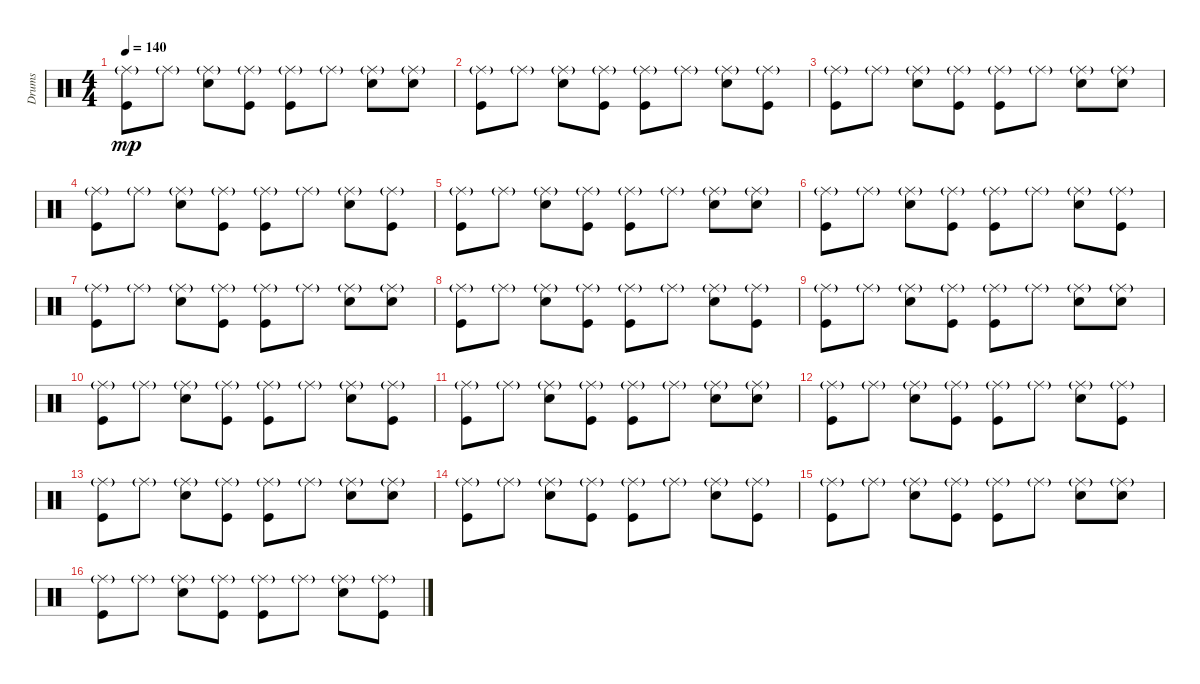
\track ("Drums" "Drums") {instrument percussion}
\staff {score}
\articulation defaults
\ts (4 4)
\tempo 140
\clef neutral
\ks c
("Ride (middle)"{g} "Kick (hit)").8{dy mp} "Ride (middle)"{g}.8 ("Ride (middle)"{g} "Electric Snare (hit)").8 ("Ride (middle)"{g} "Kick (hit)").8 ("Ride (middle)"{g} "Kick (hit)").8 "Ride (middle)"{g}.8 ("Ride (middle)"{g} "Electric Snare (hit)").8 ("Ride (middle)"{g} "Electric Snare (hit)").8 |
("Ride (middle)"{g} "Kick (hit)").8 "Ride (middle)"{g}.8 ("Ride (middle)"{g} "Electric Snare (hit)").8 ("Ride (middle)"{g} "Kick (hit)").8 ("Ride (middle)"{g} "Kick (hit)").8 "Ride (middle)"{g}.8 ("Ride (middle)"{g} "Electric Snare (hit)").8 ("Ride (middle)"{g} "Kick (hit)").8 |
("Ride (middle)"{g} "Kick (hit)").8 "Ride (middle)"{g}.8 ("Ride (middle)"{g} "Electric Snare (hit)").8 ("Ride (middle)"{g} "Kick (hit)").8 ("Ride (middle)"{g} "Kick (hit)").8 "Ride (middle)"{g}.8 ("Ride (middle)"{g} "Electric Snare (hit)").8 ("Ride (middle)"{g} "Electric Snare (hit)").8 |
("Ride (middle)"{g} "Kick (hit)").8 "Ride (middle)"{g}.8 ("Ride (middle)"{g} "Electric Snare (hit)").8 ("Ride (middle)"{g} "Kick (hit)").8 ("Ride (middle)"{g} "Kick (hit)").8 "Ride (middle)"{g}.8 ("Ride (middle)"{g} "Electric Snare (hit)").8 ("Ride (middle)"{g} "Kick (hit)").8 |
("Ride (middle)"{g} "Kick (hit)").8 "Ride (middle)"{g}.8 ("Ride (middle)"{g} "Electric Snare (hit)").8 ("Ride (middle)"{g} "Kick (hit)").8 ("Ride (middle)"{g} "Kick (hit)").8 "Ride (middle)"{g}.8 ("Ride (middle)"{g} "Electric Snare (hit)").8 ("Ride (middle)"{g} "Electric Snare (hit)").8 |
("Ride (middle)"{g} "Kick (hit)").8 "Ride (middle)"{g}.8 ("Ride (middle)"{g} "Electric Snare (hit)").8 ("Ride (middle)"{g} "Kick (hit)").8 ("Ride (middle)"{g} "Kick (hit)").8 "Ride (middle)"{g}.8 ("Ride (middle)"{g} "Electric Snare (hit)").8 ("Ride (middle)"{g} "Kick (hit)").8 |
("Ride (middle)"{g} "Kick (hit)").8 "Ride (middle)"{g}.8 ("Ride (middle)"{g} "Electric Snare (hit)").8 ("Ride (middle)"{g} "Kick (hit)").8 ("Ride (middle)"{g} "Kick (hit)").8 "Ride (middle)"{g}.8 ("Ride (middle)"{g} "Electric Snare (hit)").8 ("Ride (middle)"{g} "Electric Snare (hit)").8 |
("Ride (middle)"{g} "Kick (hit)").8 "Ride (middle)"{g}.8 ("Ride (middle)"{g} "Electric Snare (hit)").8 ("Ride (middle)"{g} "Kick (hit)").8 ("Ride (middle)"{g} "Kick (hit)").8 "Ride (middle)"{g}.8 ("Ride (middle)"{g} "Electric Snare (hit)").8 ("Ride (middle)"{g} "Kick (hit)").8 |
("Ride (middle)"{g} "Kick (hit)").8 "Ride (middle)"{g}.8 ("Ride (middle)"{g} "Electric Snare (hit)").8 ("Ride (middle)"{g} "Kick (hit)").8 ("Ride (middle)"{g} "Kick (hit)").8 "Ride (middle)"{g}.8 ("Ride (middle)"{g} "Electric Snare (hit)").8 ("Ride (middle)"{g} "Electric Snare (hit)").8 |
("Ride (middle)"{g} "Kick (hit)").8 "Ride (middle)"{g}.8 ("Ride (middle)"{g} "Electric Snare (hit)").8 ("Ride (middle)"{g} "Kick (hit)").8 ("Ride (middle)"{g} "Kick (hit)").8 "Ride (middle)"{g}.8 ("Ride (middle)"{g} "Electric Snare (hit)").8 ("Ride (middle)"{g} "Kick (hit)").8 |
("Ride (middle)"{g} "Kick (hit)").8 "Ride (middle)"{g}.8 ("Ride (middle)"{g} "Electric Snare (hit)").8 ("Ride (middle)"{g} "Kick (hit)").8 ("Ride (middle)"{g} "Kick (hit)").8 "Ride (middle)"{g}.8 ("Ride (middle)"{g} "Electric Snare (hit)").8 ("Ride (middle)"{g} "Electric Snare (hit)").8 |
("Ride (middle)"{g} "Kick (hit)").8 "Ride (middle)"{g}.8 ("Ride (middle)"{g} "Electric Snare (hit)").8 ("Ride (middle)"{g} "Kick (hit)").8 ("Ride (middle)"{g} "Kick (hit)").8 "Ride (middle)"{g}.8 ("Ride (middle)"{g} "Electric Snare (hit)").8 ("Ride (middle)"{g} "Kick (hit)").8 |
("Ride (middle)"{g} "Kick (hit)").8 "Ride (middle)"{g}.8 ("Ride (middle)"{g} "Electric Snare (hit)").8 ("Ride (middle)"{g} "Kick (hit)").8 ("Ride (middle)"{g} "Kick (hit)").8 "Ride (middle)"{g}.8 ("Ride (middle)"{g} "Electric Snare (hit)").8 ("Ride (middle)"{g} "Electric Snare (hit)").8 |
("Ride (middle)"{g} "Kick (hit)").8 "Ride (middle)"{g}.8 ("Ride (middle)"{g} "Electric Snare (hit)").8 ("Ride (middle)"{g} "Kick (hit)").8 ("Ride (middle)"{g} "Kick (hit)").8 "Ride (middle)"{g}.8 ("Ride (middle)"{g} "Electric Snare (hit)").8 ("Ride (middle)"{g} "Kick (hit)").8 |
("Ride (middle)"{g} "Kick (hit)").8 "Ride (middle)"{g}.8 ("Ride (middle)"{g} "Electric Snare (hit)").8 ("Ride (middle)"{g} "Kick (hit)").8 ("Ride (middle)"{g} "Kick (hit)").8 "Ride (middle)"{g}.8 ("Ride (middle)"{g} "Electric Snare (hit)").8 ("Ride (middle)"{g} "Electric Snare (hit)").8 |
("Ride (middle)"{g} "Kick (hit)").8 "Ride (middle)"{g}.8 ("Ride (middle)"{g} "Electric Snare (hit)").8 ("Ride (middle)"{g} "Kick (hit)").8 ("Ride (middle)"{g} "Kick (hit)").8 "Ride (middle)"{g}.8 ("Ride (middle)"{g} "Electric Snare (hit)").8 ("Ride (middle)"{g} "Kick (hit)").8
